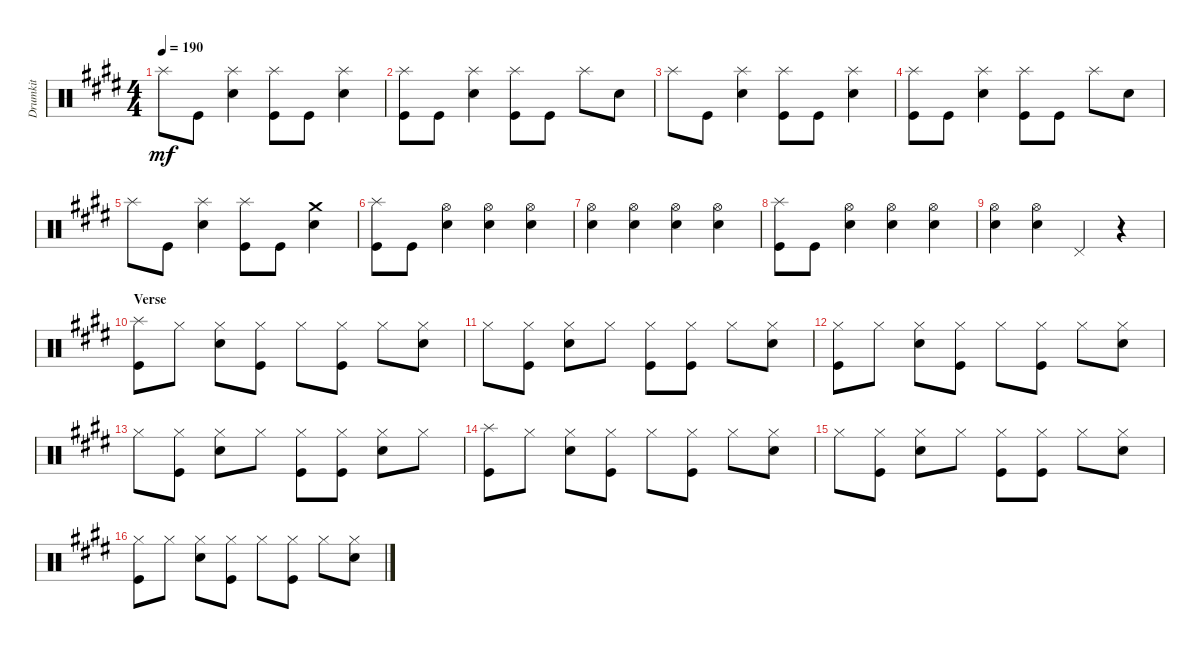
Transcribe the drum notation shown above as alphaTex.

\track ("Drumkit" "Drumkit") {instrument percussion}
\staff {score}
\articulation defaults
\ts (4 4)
\tempo 190
\clef neutral
\ks e "Splash (hit)".8{dy mf} "Kick (hit)".8
("Splash (hit)" "Snare (hit) 2").4 ("Splash (hit)" "Kick (hit)").8 "Kick (hit)".8 ("Snare (hit) 2" "Splash (hit)").4 |
("Splash (hit)" "Kick (hit)").8 "Kick (hit)".8 ("Splash (hit)" "Snare (hit) 2").4 ("Splash (hit)" "Kick (hit)").8 "Kick (hit)".8 "Splash (hit)".8 "Snare (hit) 2".8 |
"Splash (hit)".8 "Kick (hit)".8 ("Splash (hit)" "Snare (hit) 2").4 ("Splash (hit)" "Kick (hit)").8 "Kick (hit)".8 ("Snare (hit) 2" "Splash (hit)").4 |
("Splash (hit)" "Kick (hit)").8 "Kick (hit)".8 ("Splash (hit)" "Snare (hit) 2").4 ("Splash (hit)" "Kick (hit)").8 "Kick (hit)".8 "Splash (hit)".8 "Snare (hit) 2".8 |
"Splash (hit)".8 "Kick (hit)".8 ("Splash (hit)" "Snare (hit) 2").4 ("Splash (hit)" "Kick (hit)").8 "Kick (hit)".8 ("Snare (hit) 2" "Crash medium (hit)").4 |
("Splash (hit)" "Kick (hit)").8 "Kick (hit)".8 ("Hi-Hat (open)" "Snare (hit) 2").4 ("Snare (hit) 2" "Hi-Hat (open)").4 ("Snare (hit) 2" "Hi-Hat (open)").4 |
("Snare (hit) 2" "Hi-Hat (open)").4 ("Snare (hit) 2" "Hi-Hat (open)").4 ("Snare (hit) 2" "Hi-Hat (open)").4 ("Snare (hit) 2" "Hi-Hat (open)").4 |
("Splash (hit)" "Kick (hit)").8 "Kick (hit)".8 ("Hi-Hat (open)" "Snare (hit) 2").4 ("Snare (hit) 2" "Hi-Hat (open)").4 ("Snare (hit) 2" "Hi-Hat (open)").4 |
("Snare (hit) 2" "Hi-Hat (open)").4 ("Snare (hit) 2" "Hi-Hat (open)").4 "Pedal Hi-Hat (hit)".4 r.4 |
\section ("" "Verse")
("Splash (hit)" "Kick (hit)").8 "Hi-Hat (closed)".8 ("Hi-Hat (closed)" "Snare (hit) 2").8 ("Hi-Hat (closed)" "Kick (hit)").8 "Hi-Hat (closed)".8 ("Hi-Hat (closed)" "Kick (hit)").8 "Hi-Hat (closed)".8 ("Hi-Hat (closed)" "Snare (hit) 2").8 |
"Hi-Hat (closed)".8 ("Hi-Hat (closed)" "Kick (hit)").8 ("Hi-Hat (closed)" "Snare (hit) 2").8 "Hi-Hat (closed)".8 ("Hi-Hat (closed)" "Kick (hit)").8 ("Hi-Hat (closed)" "Kick (hit)").8 "Hi-Hat (closed)".8 ("Hi-Hat (closed)" "Snare (hit) 2").8 |
("Hi-Hat (closed)" "Kick (hit)").8 "Hi-Hat (closed)".8 ("Hi-Hat (closed)" "Snare (hit) 2").8 ("Hi-Hat (closed)" "Kick (hit)").8 "Hi-Hat (closed)".8 ("Hi-Hat (closed)" "Kick (hit)").8 "Hi-Hat (closed)".8 ("Hi-Hat (closed)" "Snare (hit) 2").8 |
"Hi-Hat (closed)".8 ("Kick (hit)" "Hi-Hat (closed)").8 ("Hi-Hat (closed)" "Snare (hit) 2").8 "Hi-Hat (closed)".8 ("Hi-Hat (closed)" "Kick (hit)").8 ("Hi-Hat (closed)" "Kick (hit)").8 ("Hi-Hat (closed)" "Snare (hit) 2").8 "Hi-Hat (closed)".8 |
("Splash (hit)" "Kick (hit)").8 "Hi-Hat (closed)".8 ("Hi-Hat (closed)" "Snare (hit) 2").8 ("Hi-Hat (closed)" "Kick (hit)").8 "Hi-Hat (closed)".8 ("Hi-Hat (closed)" "Kick (hit)").8 "Hi-Hat (closed)".8 ("Hi-Hat (closed)" "Snare (hit) 2").8 |
"Hi-Hat (closed)".8 ("Hi-Hat (closed)" "Kick (hit)").8 ("Hi-Hat (closed)" "Snare (hit) 2").8 "Hi-Hat (closed)".8 ("Hi-Hat (closed)" "Kick (hit)").8 ("Hi-Hat (closed)" "Kick (hit)").8 "Hi-Hat (closed)".8 ("Hi-Hat (closed)" "Snare (hit) 2").8 |
("Hi-Hat (closed)" "Kick (hit)").8 "Hi-Hat (closed)".8 ("Hi-Hat (closed)" "Snare (hit) 2").8 ("Hi-Hat (closed)" "Kick (hit)").8 "Hi-Hat (closed)".8 ("Hi-Hat (closed)" "Kick (hit)").8 "Hi-Hat (closed)".8 ("Hi-Hat (closed)" "Snare (hit) 2").8
